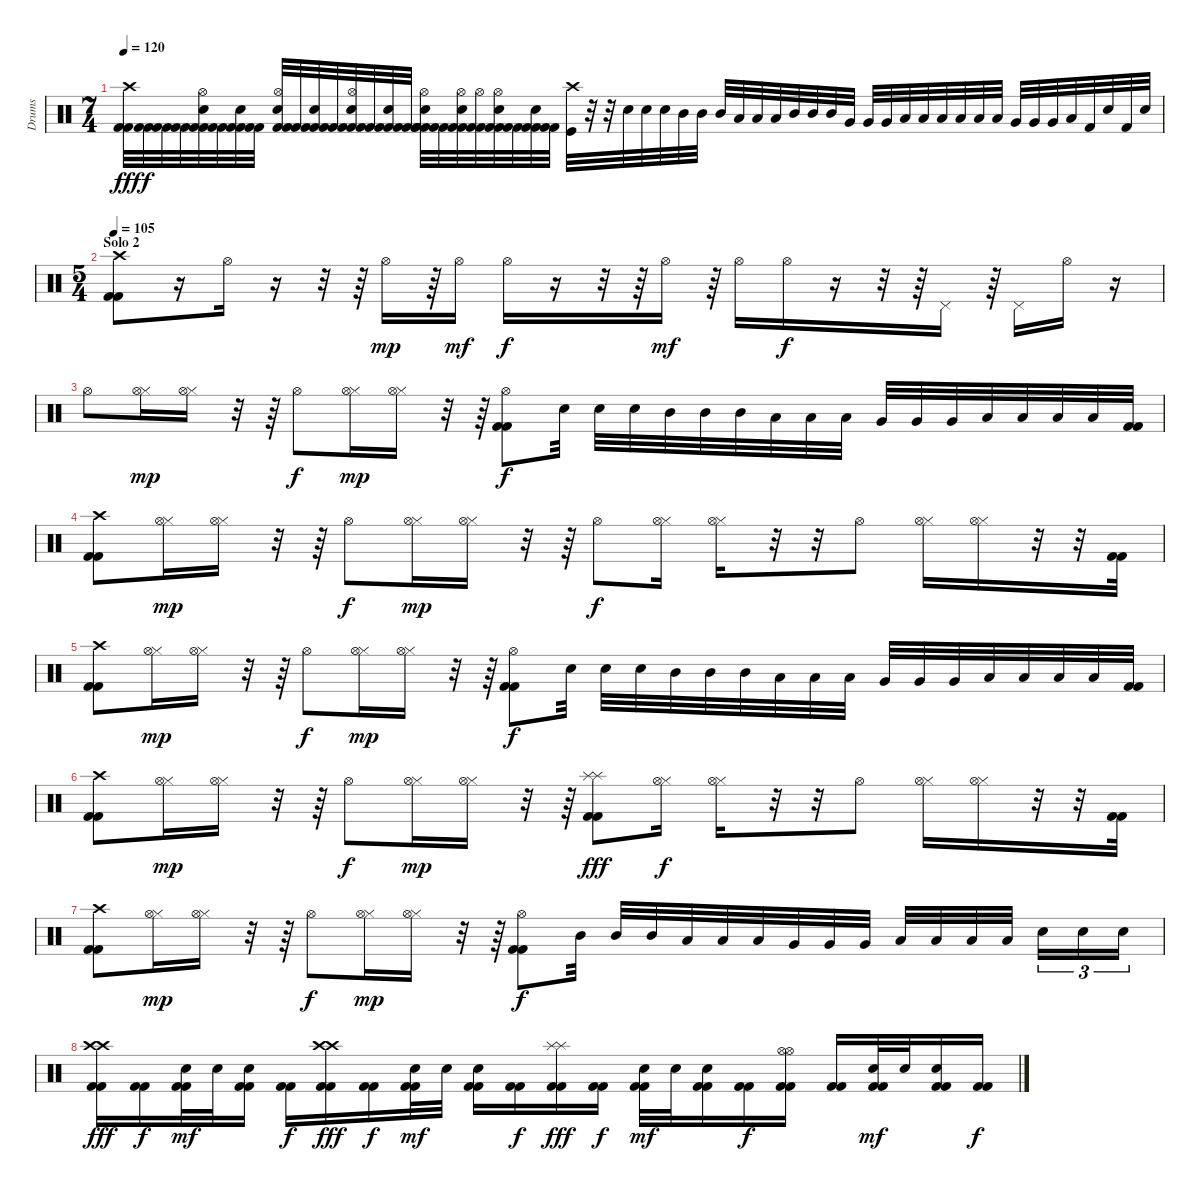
\track ("Drums" "Drums") {instrument percussion}
\staff {score}
\articulation defaults
\ts (7 4)
\tempo 120
\clef neutral
\ks c
("Crash high (hit)" "Kick (hit) 2" "Kick (hit) 2").32{dy fff} ("Kick (hit) 2" "Kick (hit) 2").32{dy f} ("Kick (hit) 2" "Kick (hit) 2").32 ("Kick (hit) 2" "Kick (hit) 2").32 ("Hi-Hat (open)" "Electric Snare (hit)" "Kick (hit) 2" "Kick (hit) 2").32 ("Kick (hit) 2" "Kick (hit) 2").32 ("Electric Snare (hit)" "Kick (hit) 2" "Kick (hit) 2").32 ("Kick (hit) 2" "Kick (hit) 2").32 ("Hi-Hat (open)" "Electric Snare (hit)" "Kick (hit) 2" "Kick (hit) 2").32 ("Kick (hit) 2" "Kick (hit) 2").32 ("Electric Snare (hit)" "Kick (hit) 2" "Kick (hit) 2").32 ("Kick (hit) 2" "Kick (hit) 2").32 ("Hi-Hat (open)" "Electric Snare (hit)" "Kick (hit) 2" "Kick (hit) 2").32 ("Kick (hit) 2" "Kick (hit) 2").32 ("Electric Snare (hit)" "Kick (hit) 2" "Kick (hit) 2").32 ("Kick (hit) 2" "Kick (hit) 2").32 ("Hi-Hat (open)" "Electric Snare (hit)" "Kick (hit) 2" "Kick (hit) 2").32 ("Kick (hit) 2" "Kick (hit) 2").32 ("Hi-Hat (open)" "Electric Snare (hit)" "Kick (hit) 2" "Kick (hit) 2").32 ("Hi-Hat (open)" "Kick (hit) 2" "Kick (hit) 2").32 ("Hi-Hat (open)" "Electric Snare (hit)" "Kick (hit) 2" "Kick (hit) 2").32 ("Kick (hit) 2" "Kick (hit) 2").32 ("Electric Snare (hit)" "Kick (hit) 2" "Kick (hit) 2").32 ("Kick (hit) 2" "Kick (hit) 2").32 ("Crash high (hit)" "Kick (hit)").32 r.32 r.32 "Electric Snare (hit)".32 "Electric Snare (hit)".32 "Electric Snare (hit)".32 "Mid Tom (hit)".32 "Mid Tom (hit)".32 "Mid Tom (hit)".32 "Low Tom (hit)".32 "Low Tom (hit)".32 "Low Tom (hit)".32 "Mid Tom (hit)".32 "Mid Tom (hit)".32 "Mid Tom (hit)".32 "Very Low Tom (hit)".32 "Very Low Tom (hit)".32 "Very Low Tom (hit)".32 "Low Tom (hit)".32 "Low Tom (hit)".32 "Low Tom (hit)".32 "Low Floor Tom (hit)".32 "Low Floor Tom (hit)".32 "Low Floor Tom (hit)".32 "Very Low Tom (hit)".32 "Very Low Tom (hit)".32 "Very Low Tom (hit)".32 "Low Floor Tom (hit)".32 "Kick (hit) 2".32 "Electric Snare (hit)".32 "Kick (hit) 2".32 "Electric Snare (hit)".32 |
\ts (5 4)
\section ("" "Solo 2")
\tempo 105
("Crash high (hit)" "Kick (hit) 2" "Kick (hit) 2").8 r.16 "Hi-Hat (open)".16 r.16 r.32 r.64 "Hi-Hat (open)".16{dy mp} r.64 "Hi-Hat (open)".16{dy mf} "Hi-Hat (open)".16{dy f} r.16 r.32 r.64 "Hi-Hat (open)".16{dy mf} r.64 "Hi-Hat (open)".16 "Hi-Hat (open)".16{dy f} r.16 r.32 r.64 "Pedal Hi-Hat (hit)".16 r.64 "Pedal Hi-Hat (hit)".16 "Hi-Hat (open)".16 r.16 |
"Hi-Hat (open)".8 ("Hi-Hat (closed)" "Hi-Hat (open)").16{dy mp} ("Hi-Hat (closed)" "Hi-Hat (open)").16 r.32 r.64 "Hi-Hat (open)".8{dy f} ("Hi-Hat (closed)" "Hi-Hat (open)").16{dy mp} ("Hi-Hat (closed)" "Hi-Hat (open)").16 r.32 r.64 ("Hi-Hat (open)" "Kick (hit) 2" "Kick (hit) 2").8{dy f} "Electric Snare (hit)".32 "Electric Snare (hit)".32 "Electric Snare (hit)".32 "Mid Tom (hit)".32 "Mid Tom (hit)".32 "Mid Tom (hit)".32 "Low Tom (hit)".32 "Low Tom (hit)".32 "Low Tom (hit)".32 "Very Low Tom (hit)".32 "Very Low Tom (hit)".32 "Very Low Tom (hit)".32 "Low Floor Tom (hit)".32 "Low Floor Tom (hit)".32 "Low Floor Tom (hit)".32 "Low Tom (hit)".32 ("Kick (hit) 2" "Kick (hit) 2").32 |
("Crash high (hit)" "Kick (hit) 2" "Kick (hit) 2").8 ("Hi-Hat (closed)" "Hi-Hat (open)").16{dy mp} ("Hi-Hat (closed)" "Hi-Hat (open)").16 r.32 r.64 "Hi-Hat (open)".8{dy f} ("Hi-Hat (closed)" "Hi-Hat (open)").16{dy mp} ("Hi-Hat (closed)" "Hi-Hat (open)").16 r.32 r.64 "Hi-Hat (open)".8{dy f} ("Hi-Hat (closed)" "Hi-Hat (open)").16 ("Hi-Hat (closed)" "Hi-Hat (open)").16 r.32 r.32 "Hi-Hat (open)".8 ("Hi-Hat (closed)" "Hi-Hat (open)").16 ("Hi-Hat (closed)" "Hi-Hat (open)").16 r.32 r.32 ("Kick (hit) 2" "Kick (hit) 2").32 |
("Crash high (hit)" "Kick (hit) 2" "Kick (hit) 2").8 ("Hi-Hat (closed)" "Hi-Hat (open)").16{dy mp} ("Hi-Hat (closed)" "Hi-Hat (open)").16 r.32 r.64 "Hi-Hat (open)".8{dy f} ("Hi-Hat (closed)" "Hi-Hat (open)").16{dy mp} ("Hi-Hat (closed)" "Hi-Hat (open)").16 r.32 r.64 ("Hi-Hat (open)" "Kick (hit) 2" "Kick (hit) 2").8{dy f} "Electric Snare (hit)".32 "Electric Snare (hit)".32 "Electric Snare (hit)".32 "Mid Tom (hit)".32 "Mid Tom (hit)".32 "Mid Tom (hit)".32 "Low Tom (hit)".32 "Low Tom (hit)".32 "Low Tom (hit)".32 "Very Low Tom (hit)".32 "Very Low Tom (hit)".32 "Very Low Tom (hit)".32 "Low Floor Tom (hit)".32 "Low Floor Tom (hit)".32 "Low Floor Tom (hit)".32 "Low Tom (hit)".32 ("Kick (hit) 2" "Kick (hit) 2").32 |
("Crash high (hit)" "Kick (hit) 2" "Kick (hit) 2").8 ("Hi-Hat (closed)" "Hi-Hat (open)").16{dy mp} ("Hi-Hat (closed)" "Hi-Hat (open)").16 r.32 r.64 "Hi-Hat (open)".8{dy f} ("Hi-Hat (closed)" "Hi-Hat (open)").16{dy mp} ("Hi-Hat (closed)" "Hi-Hat (open)").16 r.32 r.64 ("Splash (hit)" "Splash (hit)" "Kick (hit) 2" "Kick (hit) 2").8{dy fff} ("Hi-Hat (closed)" "Hi-Hat (open)").16{dy f} ("Hi-Hat (closed)" "Hi-Hat (open)").16 r.32 r.32 "Hi-Hat (open)".8 ("Hi-Hat (closed)" "Hi-Hat (open)").16 ("Hi-Hat (closed)" "Hi-Hat (open)").16 r.32 r.32 ("Kick (hit) 2" "Kick (hit) 2").32 |
("Crash high (hit)" "Kick (hit) 2" "Kick (hit) 2").8 ("Hi-Hat (closed)" "Hi-Hat (open)").16{dy mp} ("Hi-Hat (closed)" "Hi-Hat (open)").16 r.32 r.64 "Hi-Hat (open)".8{dy f} ("Hi-Hat (closed)" "Hi-Hat (open)").16{dy mp} ("Hi-Hat (closed)" "Hi-Hat (open)").16 r.32 r.64 ("Hi-Hat (open)" "Kick (hit) 2" "Kick (hit) 2").8{dy f} "Mid Tom (hit)".32 "Mid Tom (hit)".32 "Mid Tom (hit)".32 "Low Tom (hit)".32 "Low Tom (hit)".32 "Low Tom (hit)".32 "Very Low Tom (hit)".32 "Very Low Tom (hit)".32 "Very Low Tom (hit)".32 "Low Floor Tom (hit)".32 "Low Floor Tom (hit)".32 "Low Floor Tom (hit)".32 "Low Tom (hit)".32 "Electric Snare (hit)".16{tu (3 2)} "Electric Snare (hit)".16{tu (3 2)} "Electric Snare (hit)".16{tu (3 2)} |
("Crash high (hit)" "Crash high (hit)" "Kick (hit) 2" "Kick (hit) 2").16{dy fff} ("Kick (hit) 2" "Kick (hit) 2").16{dy f} ("Electric Snare (hit)" "Kick (hit) 2" "Kick (hit) 2").32{dy mf} "Electric Snare (hit)".32 ("Electric Snare (hit)" "Kick (hit) 2" "Kick (hit) 2").16 ("Kick (hit) 2" "Kick (hit) 2").16{dy f} ("Crash high (hit)" "Crash high (hit)" "Kick (hit) 2" "Kick (hit) 2").16{dy fff} ("Kick (hit) 2" "Kick (hit) 2").16{dy f} ("Electric Snare (hit)" "Kick (hit) 2" "Kick (hit) 2").32{dy mf} "Electric Snare (hit)".32 ("Electric Snare (hit)" "Kick (hit) 2" "Kick (hit) 2").16 ("Kick (hit) 2" "Kick (hit) 2").16{dy f} ("Splash (hit)" "Splash (hit)" "Kick (hit) 2" "Kick (hit) 2").16{dy fff} ("Kick (hit) 2" "Kick (hit) 2").16{dy f} ("Electric Snare (hit)" "Kick (hit) 2" "Kick (hit) 2").32{dy mf} "Electric Snare (hit)".32 ("Electric Snare (hit)" "Kick (hit) 2" "Kick (hit) 2").16 ("Kick (hit) 2" "Kick (hit) 2").16{dy f} ("Hi-Hat (open)" "Hi-Hat (open)" "Kick (hit) 2" "Kick (hit) 2").16 ("Kick (hit) 2" "Kick (hit) 2").16 ("Electric Snare (hit)" "Kick (hit) 2" "Kick (hit) 2").32{dy mf} "Electric Snare (hit)".32 ("Electric Snare (hit)" "Kick (hit) 2" "Kick (hit) 2").16 ("Kick (hit) 2" "Kick (hit) 2").16{dy f}
